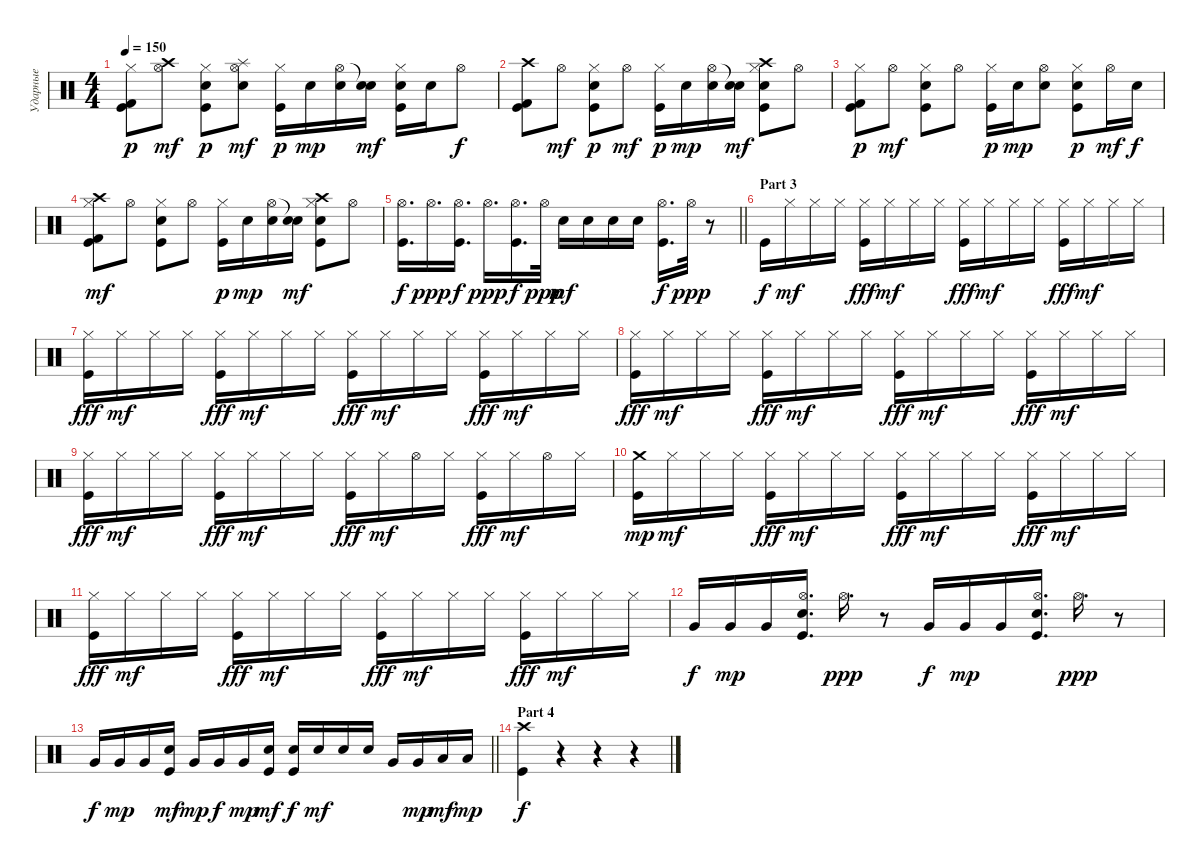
\track ("Ударные" "Ударные") {instrument percussion}
\staff {score}
\articulation defaults
\ts (4 4)
\tempo 150
\clef neutral
\ks c
("Kick (hit) 2" "Kick (hit)" "Hi-Hat (closed)").8{dy p} ("Crash high (hit)" "Hi-Hat (open)").8{dy mf} ("Kick (hit)" "Hi-Hat (closed)" "Electric Snare (hit)").8{dy p} ("Splash (hit)" "Hi-Hat (open)" "Electric Snare (hit)").8{dy mf} ("Kick (hit)" "Hi-Hat (closed)").16{dy p} "Electric Snare (hit)".16{dy mp} ("Hi-Hat (open)" "Electric Snare (hit)").16 ("Snare (hit)"{t} "Electric Snare (hit)").16{dy mf} ("Kick (hit)" "Hi-Hat (closed)" "Electric Snare (hit)").16 "Electric Snare (hit)".16 "Hi-Hat (open)".8{dy f} |
("Kick (hit) 2" "Kick (hit)" "Crash high (hit)").8 "Hi-Hat (open)".8{dy mf} ("Kick (hit)" "Hi-Hat (closed)" "Electric Snare (hit)").8{dy p} "Hi-Hat (open)".8{dy mf} ("Kick (hit)" "Hi-Hat (closed)").16{dy p} "Electric Snare (hit)".16{dy mp} ("Hi-Hat (open)" "Electric Snare (hit)").16 ("Snare (hit)"{t} "Electric Snare (hit)").16{dy mf} ("Kick (hit)" "Hi-Hat (closed)" "Electric Snare (hit)" "Crash high (hit)").8 "Hi-Hat (open)".8 |
("Kick (hit) 2" "Hi-Hat (closed)" "Kick (hit)").8{dy p} "Hi-Hat (open)".8{dy mf} ("Kick (hit)" "Hi-Hat (closed)" "Electric Snare (hit)").8 "Hi-Hat (open)".8 ("Kick (hit)" "Hi-Hat (closed)").16{dy p} "Electric Snare (hit)".16{dy mp} ("Hi-Hat (open)" "Electric Snare (hit)").8 ("Kick (hit)" "Hi-Hat (closed)" "Electric Snare (hit)").8{dy p} "Hi-Hat (open)".16{dy mf} "Electric Snare (hit)".16{dy f} |
("Kick (hit) 2" "Kick (hit)" "Hi-Hat (closed)" "Crash high (hit)").8{dy mf} "Hi-Hat (open)".8 ("Kick (hit)" "Hi-Hat (closed)" "Electric Snare (hit)").8 "Hi-Hat (open)".8 ("Kick (hit)" "Hi-Hat (closed)").16{dy p} "Electric Snare (hit)".16{dy mp} ("Hi-Hat (open)" "Electric Snare (hit)").16 ("Snare (hit)"{t} "Electric Snare (hit)").16{dy mf} ("Kick (hit)" "Hi-Hat (closed)" "Electric Snare (hit)" "Crash high (hit)").8 "Hi-Hat (open)".8 |
\barLineRight lightlight
("Hi-Hat (open)" "Kick (hit)").16{d dy f} "Hi-Hat (open)".16{d dy ppp} ("Hi-Hat (open)" "Kick (hit)").16{d dy f} "Hi-Hat (open)".16{d dy ppp} ("Hi-Hat (open)" "Kick (hit)").16{d dy f} "Hi-Hat (open)".32{dy ppp} "Electric Snare (hit)".16{dy mf} "Electric Snare (hit)".16 "Electric Snare (hit)".16 "Electric Snare (hit)".16 ("Hi-Hat (open)" "Kick (hit)").16{d dy f} "Hi-Hat (open)".32{dy ppp} r.8 |
\section ("" "Part 3")
"Kick (hit)".16{dy f} "Hi-Hat (closed)".16{dy mf} "Hi-Hat (closed)".16 "Hi-Hat (closed)".16 ("Hi-Hat (closed)" "Kick (hit)").16{dy fff} "Hi-Hat (closed)".16{dy mf} "Hi-Hat (closed)".16 "Hi-Hat (closed)".16 ("Hi-Hat (closed)" "Kick (hit)").16{dy fff} "Hi-Hat (closed)".16{dy mf} "Hi-Hat (closed)".16 "Hi-Hat (closed)".16 ("Hi-Hat (closed)" "Kick (hit)").16{dy fff} "Hi-Hat (closed)".16{dy mf} "Hi-Hat (closed)".16 "Hi-Hat (closed)".16 |
("Hi-Hat (closed)" "Kick (hit)").16{dy fff} "Hi-Hat (closed)".16{dy mf} "Hi-Hat (closed)".16 "Hi-Hat (closed)".16 ("Hi-Hat (closed)" "Kick (hit)").16{dy fff} "Hi-Hat (closed)".16{dy mf} "Hi-Hat (closed)".16 "Hi-Hat (closed)".16 ("Hi-Hat (closed)" "Kick (hit)").16{dy fff} "Hi-Hat (closed)".16{dy mf} "Hi-Hat (closed)".16 "Hi-Hat (closed)".16 ("Hi-Hat (closed)" "Kick (hit)").16{dy fff} "Hi-Hat (closed)".16{dy mf} "Hi-Hat (closed)".16 "Hi-Hat (closed)".16 |
("Hi-Hat (closed)" "Kick (hit)").16{dy fff} "Hi-Hat (closed)".16{dy mf} "Hi-Hat (closed)".16 "Hi-Hat (closed)".16 ("Hi-Hat (closed)" "Kick (hit)").16{dy fff} "Hi-Hat (closed)".16{dy mf} "Hi-Hat (closed)".16 "Hi-Hat (closed)".16 ("Hi-Hat (closed)" "Kick (hit)").16{dy fff} "Hi-Hat (closed)".16{dy mf} "Hi-Hat (closed)".16 "Hi-Hat (closed)".16 ("Hi-Hat (closed)" "Kick (hit)").16{dy fff} "Hi-Hat (closed)".16{dy mf} "Hi-Hat (closed)".16 "Hi-Hat (closed)".16 |
("Hi-Hat (closed)" "Kick (hit)").16{dy fff} "Hi-Hat (closed)".16{dy mf} "Hi-Hat (closed)".16 "Hi-Hat (closed)".16 ("Hi-Hat (closed)" "Kick (hit)").16{dy fff} "Hi-Hat (closed)".16{dy mf} "Hi-Hat (closed)".16 "Hi-Hat (closed)".16 ("Hi-Hat (closed)" "Kick (hit)").16{dy fff} "Hi-Hat (closed)".16{dy mf} "Hi-Hat (open)".16 "Hi-Hat (closed)".16 ("Hi-Hat (closed)" "Kick (hit)").16{dy fff} "Hi-Hat (closed)".16{dy mf} "Hi-Hat (open)".16 "Hi-Hat (closed)".16 |
("Crash medium (hit)" "Kick (hit)").16{dy mp} "Hi-Hat (closed)".16{dy mf} "Hi-Hat (closed)".16 "Hi-Hat (closed)".16 ("Hi-Hat (closed)" "Kick (hit)").16{dy fff} "Hi-Hat (closed)".16{dy mf} "Hi-Hat (closed)".16 "Hi-Hat (closed)".16 ("Hi-Hat (closed)" "Kick (hit)").16{dy fff} "Hi-Hat (closed)".16{dy mf} "Hi-Hat (closed)".16 "Hi-Hat (closed)".16 ("Hi-Hat (closed)" "Kick (hit)").16{dy fff} "Hi-Hat (closed)".16{dy mf} "Hi-Hat (closed)".16 "Hi-Hat (closed)".16 |
("Hi-Hat (closed)" "Kick (hit)").16{dy fff} "Hi-Hat (closed)".16{dy mf} "Hi-Hat (closed)".16 "Hi-Hat (closed)".16 ("Hi-Hat (closed)" "Kick (hit)").16{dy fff} "Hi-Hat (closed)".16{dy mf} "Hi-Hat (closed)".16 "Hi-Hat (closed)".16 ("Hi-Hat (closed)" "Kick (hit)").16{dy fff} "Hi-Hat (closed)".16{dy mf} "Hi-Hat (closed)".16 "Hi-Hat (closed)".16 ("Hi-Hat (closed)" "Kick (hit)").16{dy fff} "Hi-Hat (closed)".16{dy mf} "Hi-Hat (closed)".16 "Hi-Hat (closed)".16 |
"Very Low Tom (hit)".16{dy f} "Very Low Tom (hit)".16{dy mp} "Very Low Tom (hit)".16 ("Electric Snare (hit)" "Hi-Hat (open)" "Kick (hit)").16{d} "Hi-Hat (open)".16{d dy ppp} r.8 "Very Low Tom (hit)".16{dy f} "Very Low Tom (hit)".16{dy mp} "Very Low Tom (hit)".16 ("Electric Snare (hit)" "Hi-Hat (open)" "Kick (hit)").16{d} "Hi-Hat (open)".16{d dy ppp} r.8 |
\barLineRight lightlight "Very Low Tom (hit)".16{dy f} "Very Low Tom (hit)".16{dy mp} "Very Low Tom (hit)".16
("Electric Snare (hit)" "Kick (hit)").16{dy mf} "Very Low Tom (hit)".16{dy mp} "Very Low Tom (hit)".16{dy f} "Very Low Tom (hit)".16{dy mp} ("Electric Snare (hit)" "Kick (hit)").16{dy mf} ("Electric Snare (hit)" "Kick (hit)").16{dy f} "Electric Snare (hit)".16{dy mf} "Electric Snare (hit)".16 "Electric Snare (hit)".16 "Very Low Tom (hit)".16 "Very Low Tom (hit)".16{dy mp} "Low Floor Tom (hit)".16{dy mf} "Low Floor Tom (hit)".16{dy mp} |
\section ("" "Part 4")
("Crash high (hit)" "Kick (hit)").4{dy f} r.4 r.4 r.4
